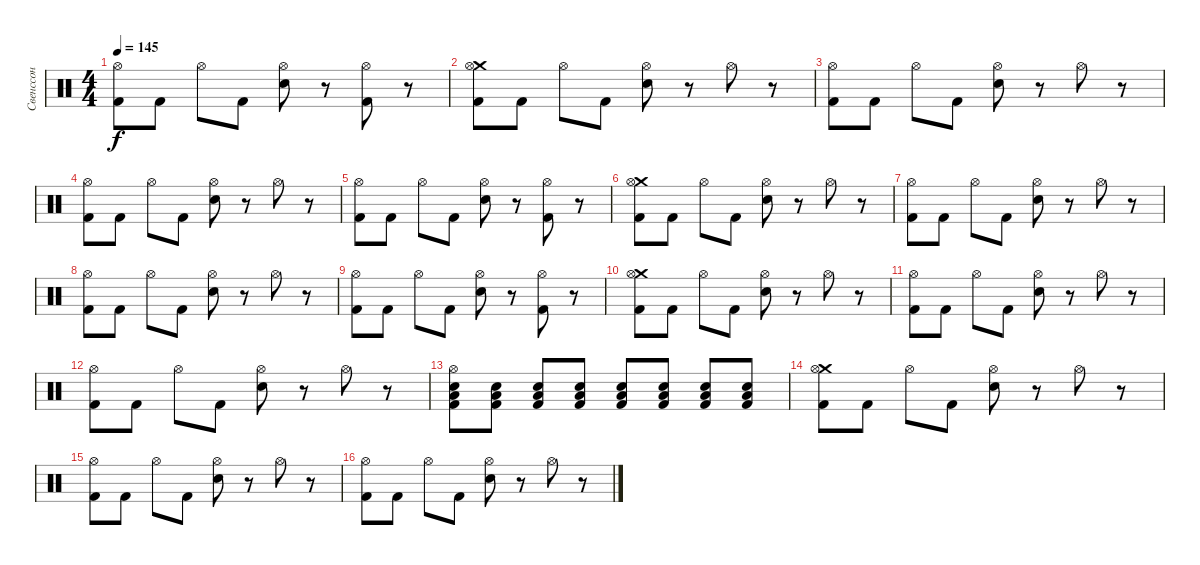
\track ("Свенссон" "Свенссон") {instrument percussion}
\staff {score}
\articulation defaults
\ts (4 4)
\tempo 145
\clef neutral
\ks c
("Hi-Hat (open)" "Kick (hit) 2").8{dy f} "Kick (hit) 2".8 "Hi-Hat (open)".8 "Kick (hit) 2".8 ("Hi-Hat (open)" "Snare (hit) 2").8 r.8 ("Hi-Hat (open)" "Kick (hit) 2").8 r.8 |
("Crash medium (hit)" "Hi-Hat (open)" "Kick (hit) 2").8 "Kick (hit) 2".8 "Hi-Hat (open)".8 "Kick (hit) 2".8 ("Hi-Hat (open)" "Snare (hit) 2").8 r.8 "Hi-Hat (open)".8 r.8 |
("Hi-Hat (open)" "Kick (hit) 2").8 "Kick (hit) 2".8 "Hi-Hat (open)".8 "Kick (hit) 2".8 ("Hi-Hat (open)" "Snare (hit) 2").8 r.8 "Hi-Hat (open)".8 r.8 |
("Hi-Hat (open)" "Kick (hit) 2").8 "Kick (hit) 2".8 "Hi-Hat (open)".8 "Kick (hit) 2".8 ("Hi-Hat (open)" "Snare (hit) 2").8 r.8 "Hi-Hat (open)".8 r.8 |
("Hi-Hat (open)" "Kick (hit) 2").8 "Kick (hit) 2".8 "Hi-Hat (open)".8 "Kick (hit) 2".8 ("Hi-Hat (open)" "Snare (hit) 2").8 r.8 ("Hi-Hat (open)" "Kick (hit) 2").8 r.8 |
("Crash medium (hit)" "Hi-Hat (open)" "Kick (hit) 2").8 "Kick (hit) 2".8 "Hi-Hat (open)".8 "Kick (hit) 2".8 ("Hi-Hat (open)" "Snare (hit) 2").8 r.8 "Hi-Hat (open)".8 r.8 |
("Hi-Hat (open)" "Kick (hit) 2").8 "Kick (hit) 2".8 "Hi-Hat (open)".8 "Kick (hit) 2".8 ("Hi-Hat (open)" "Snare (hit) 2").8 r.8 "Hi-Hat (open)".8 r.8 |
("Hi-Hat (open)" "Kick (hit) 2").8 "Kick (hit) 2".8 "Hi-Hat (open)".8 "Kick (hit) 2".8 ("Hi-Hat (open)" "Snare (hit) 2").8 r.8 "Hi-Hat (open)".8 r.8 |
("Hi-Hat (open)" "Kick (hit) 2").8 "Kick (hit) 2".8 "Hi-Hat (open)".8 "Kick (hit) 2".8 ("Hi-Hat (open)" "Snare (hit) 2").8 r.8 ("Hi-Hat (open)" "Kick (hit) 2").8 r.8 |
("Crash medium (hit)" "Hi-Hat (open)" "Kick (hit) 2").8 "Kick (hit) 2".8 "Hi-Hat (open)".8 "Kick (hit) 2".8 ("Hi-Hat (open)" "Snare (hit) 2").8 r.8 "Hi-Hat (open)".8 r.8 |
("Hi-Hat (open)" "Kick (hit) 2").8 "Kick (hit) 2".8 "Hi-Hat (open)".8 "Kick (hit) 2".8 ("Hi-Hat (open)" "Snare (hit) 2").8 r.8 "Hi-Hat (open)".8 r.8 |
("Hi-Hat (open)" "Kick (hit) 2").8 "Kick (hit) 2".8 "Hi-Hat (open)".8 "Kick (hit) 2".8 ("Hi-Hat (open)" "Snare (hit) 2").8 r.8 "Hi-Hat (open)".8 r.8 |
("Hi-Hat (open)" "Snare (hit) 2" "Low Floor Tom (hit)" "Kick (hit) 2").8 ("Snare (hit) 2" "Low Floor Tom (hit)" "Kick (hit) 2").8 ("Snare (hit) 2" "Low Floor Tom (hit)" "Kick (hit) 2").8 ("Snare (hit) 2" "Low Floor Tom (hit)" "Kick (hit) 2").8 ("Snare (hit) 2" "Low Floor Tom (hit)" "Kick (hit) 2").8 ("Snare (hit) 2" "Low Floor Tom (hit)" "Kick (hit) 2").8 ("Snare (hit) 2" "Low Floor Tom (hit)" "Kick (hit) 2").8 ("Snare (hit) 2" "Low Floor Tom (hit)" "Kick (hit) 2").8 |
("Crash medium (hit)" "Hi-Hat (open)" "Kick (hit) 2").8 "Kick (hit) 2".8 "Hi-Hat (open)".8 "Kick (hit) 2".8 ("Hi-Hat (open)" "Snare (hit) 2").8 r.8 "Hi-Hat (open)".8 r.8 |
("Hi-Hat (open)" "Kick (hit) 2").8 "Kick (hit) 2".8 "Hi-Hat (open)".8 "Kick (hit) 2".8 ("Hi-Hat (open)" "Snare (hit) 2").8 r.8 "Hi-Hat (open)".8 r.8 |
("Hi-Hat (open)" "Kick (hit) 2").8 "Kick (hit) 2".8 "Hi-Hat (open)".8 "Kick (hit) 2".8 ("Hi-Hat (open)" "Snare (hit) 2").8 r.8 "Hi-Hat (open)".8 r.8
